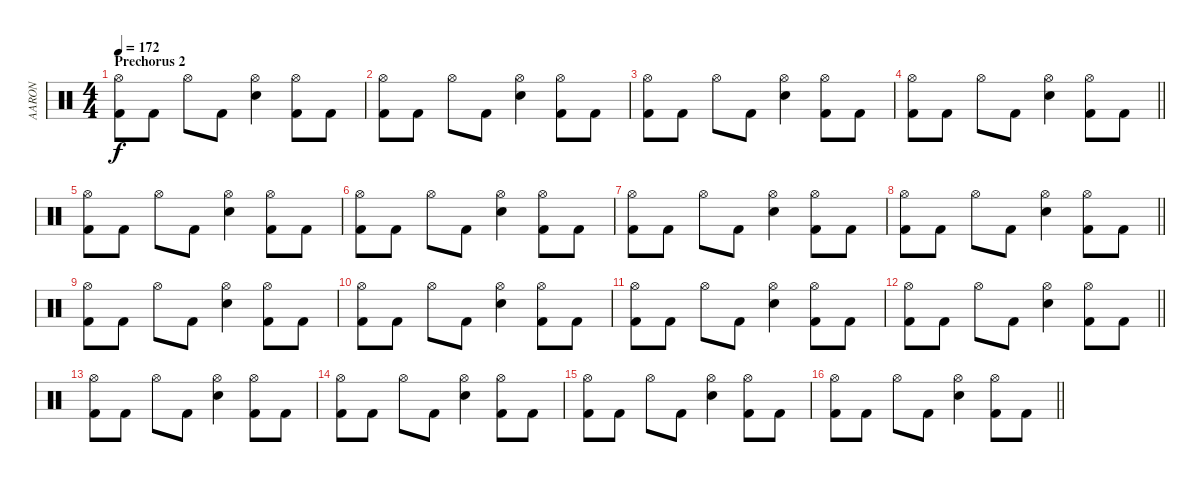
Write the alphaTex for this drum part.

\track ("AARON" "AARON") {instrument percussion}
\staff {score}
\articulation defaults
\ts (4 4)
\section ("" "Prechorus 2")
\tempo 172
\clef neutral
\ks c
("Hi-Hat (open)" "Kick (hit) 2").8{dy f} "Kick (hit) 2".8 "Hi-Hat (open)".8 "Kick (hit) 2".8 ("Hi-Hat (open)" "Electric Snare (hit)").4 ("Hi-Hat (open)" "Kick (hit) 2").8 "Kick (hit) 2".8 |
("Hi-Hat (open)" "Kick (hit) 2").8 "Kick (hit) 2".8 "Hi-Hat (open)".8 "Kick (hit) 2".8 ("Hi-Hat (open)" "Electric Snare (hit)").4 ("Hi-Hat (open)" "Kick (hit) 2").8 "Kick (hit) 2".8 |
("Hi-Hat (open)" "Kick (hit) 2").8 "Kick (hit) 2".8 "Hi-Hat (open)".8 "Kick (hit) 2".8 ("Hi-Hat (open)" "Electric Snare (hit)").4 ("Hi-Hat (open)" "Kick (hit) 2").8 "Kick (hit) 2".8 |
\barLineRight lightlight
("Hi-Hat (open)" "Kick (hit) 2").8 "Kick (hit) 2".8 "Hi-Hat (open)".8 "Kick (hit) 2".8 ("Hi-Hat (open)" "Electric Snare (hit)").4 ("Hi-Hat (open)" "Kick (hit) 2").8 "Kick (hit) 2".8 |
("Hi-Hat (open)" "Kick (hit) 2").8 "Kick (hit) 2".8 "Hi-Hat (open)".8 "Kick (hit) 2".8 ("Hi-Hat (open)" "Electric Snare (hit)").4 ("Hi-Hat (open)" "Kick (hit) 2").8 "Kick (hit) 2".8 |
("Hi-Hat (open)" "Kick (hit) 2").8 "Kick (hit) 2".8 "Hi-Hat (open)".8 "Kick (hit) 2".8 ("Hi-Hat (open)" "Electric Snare (hit)").4 ("Hi-Hat (open)" "Kick (hit) 2").8 "Kick (hit) 2".8 |
("Hi-Hat (open)" "Kick (hit) 2").8 "Kick (hit) 2".8 "Hi-Hat (open)".8 "Kick (hit) 2".8 ("Hi-Hat (open)" "Electric Snare (hit)").4 ("Hi-Hat (open)" "Kick (hit) 2").8 "Kick (hit) 2".8 |
\barLineRight lightlight
("Hi-Hat (open)" "Kick (hit) 2").8 "Kick (hit) 2".8 "Hi-Hat (open)".8 "Kick (hit) 2".8 ("Hi-Hat (open)" "Electric Snare (hit)").4 ("Hi-Hat (open)" "Kick (hit) 2").8 "Kick (hit) 2".8 |
("Hi-Hat (open)" "Kick (hit) 2").8 "Kick (hit) 2".8 "Hi-Hat (open)".8 "Kick (hit) 2".8 ("Hi-Hat (open)" "Electric Snare (hit)").4 ("Hi-Hat (open)" "Kick (hit) 2").8 "Kick (hit) 2".8 |
("Hi-Hat (open)" "Kick (hit) 2").8 "Kick (hit) 2".8 "Hi-Hat (open)".8 "Kick (hit) 2".8 ("Hi-Hat (open)" "Electric Snare (hit)").4 ("Hi-Hat (open)" "Kick (hit) 2").8 "Kick (hit) 2".8 |
("Hi-Hat (open)" "Kick (hit) 2").8 "Kick (hit) 2".8 "Hi-Hat (open)".8 "Kick (hit) 2".8 ("Hi-Hat (open)" "Electric Snare (hit)").4 ("Hi-Hat (open)" "Kick (hit) 2").8 "Kick (hit) 2".8 |
\barLineRight lightlight
("Hi-Hat (open)" "Kick (hit) 2").8 "Kick (hit) 2".8 "Hi-Hat (open)".8 "Kick (hit) 2".8 ("Hi-Hat (open)" "Electric Snare (hit)").4 ("Hi-Hat (open)" "Kick (hit) 2").8 "Kick (hit) 2".8 |
("Hi-Hat (open)" "Kick (hit) 2").8 "Kick (hit) 2".8 "Hi-Hat (open)".8 "Kick (hit) 2".8 ("Hi-Hat (open)" "Electric Snare (hit)").4 ("Hi-Hat (open)" "Kick (hit) 2").8 "Kick (hit) 2".8 |
("Hi-Hat (open)" "Kick (hit) 2").8 "Kick (hit) 2".8 "Hi-Hat (open)".8 "Kick (hit) 2".8 ("Hi-Hat (open)" "Electric Snare (hit)").4 ("Hi-Hat (open)" "Kick (hit) 2").8 "Kick (hit) 2".8 |
("Hi-Hat (open)" "Kick (hit) 2").8 "Kick (hit) 2".8 "Hi-Hat (open)".8 "Kick (hit) 2".8 ("Hi-Hat (open)" "Electric Snare (hit)").4 ("Hi-Hat (open)" "Kick (hit) 2").8 "Kick (hit) 2".8 |
\barLineRight lightlight
("Hi-Hat (open)" "Kick (hit) 2").8 "Kick (hit) 2".8 "Hi-Hat (open)".8 "Kick (hit) 2".8 ("Hi-Hat (open)" "Electric Snare (hit)").4 ("Hi-Hat (open)" "Kick (hit) 2").8 "Kick (hit) 2".8
